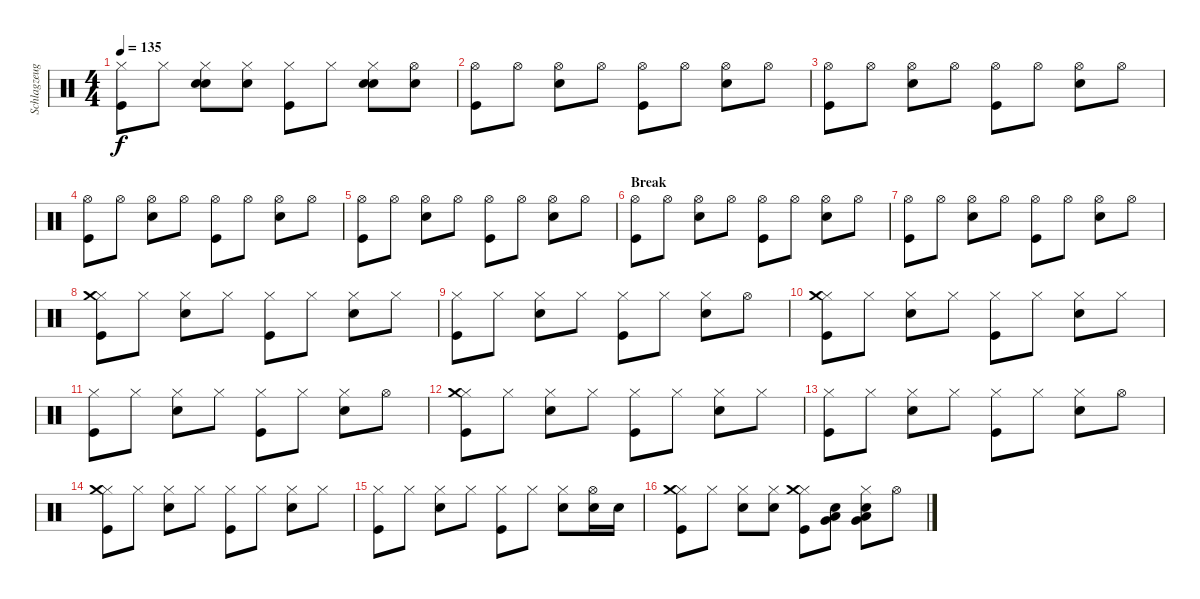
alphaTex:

\track ("Schlagzeug - Bela B." "Schlagzeug") {instrument percussion}
\staff {score}
\articulation defaults
\ts (4 4)
\tempo 135
\clef neutral
\ks c
("Kick (hit)" "Hi-Hat (closed)").8{dy f} "Hi-Hat (closed)".8 ("Electric Snare (hit)" "Hi-Hat (closed)" "Hand Clap (hit)").8 ("Hi-Hat (closed)" "Hand Clap (hit)").8 ("Kick (hit)" "Hi-Hat (closed)").8 "Hi-Hat (closed)".8 ("Electric Snare (hit)" "Hi-Hat (closed)" "Hand Clap (hit)").8 ("Hi-Hat (open)" "Hand Clap (hit)").8 |
("Kick (hit)" "Hi-Hat (open)").8 "Hi-Hat (open)".8 ("Electric Snare (hit)" "Hi-Hat (open)").8 "Hi-Hat (open)".8 ("Kick (hit)" "Hi-Hat (open)").8 "Hi-Hat (open)".8 ("Electric Snare (hit)" "Hi-Hat (open)").8 "Hi-Hat (open)".8 |
("Kick (hit)" "Hi-Hat (open)").8 "Hi-Hat (open)".8 ("Electric Snare (hit)" "Hi-Hat (open)").8 "Hi-Hat (open)".8 ("Kick (hit)" "Hi-Hat (open)").8 "Hi-Hat (open)".8 ("Electric Snare (hit)" "Hi-Hat (open)").8 "Hi-Hat (open)".8 |
("Kick (hit)" "Hi-Hat (open)").8 "Hi-Hat (open)".8 ("Electric Snare (hit)" "Hi-Hat (open)").8 "Hi-Hat (open)".8 ("Kick (hit)" "Hi-Hat (open)").8 "Hi-Hat (open)".8 ("Electric Snare (hit)" "Hi-Hat (open)").8 "Hi-Hat (open)".8 |
("Kick (hit)" "Hi-Hat (open)").8 "Hi-Hat (open)".8 ("Electric Snare (hit)" "Hi-Hat (open)").8 "Hi-Hat (open)".8 ("Kick (hit)" "Hi-Hat (open)").8 "Hi-Hat (open)".8 ("Electric Snare (hit)" "Hi-Hat (open)").8 "Hi-Hat (open)".8 |
\section ("" "Break")
("Kick (hit)" "Hi-Hat (open)").8 "Hi-Hat (open)".8 ("Electric Snare (hit)" "Hi-Hat (open)").8 "Hi-Hat (open)".8 ("Kick (hit)" "Hi-Hat (open)").8 "Hi-Hat (open)".8 ("Electric Snare (hit)" "Hi-Hat (open)").8 "Hi-Hat (open)".8 |
("Kick (hit)" "Hi-Hat (open)").8 "Hi-Hat (open)".8 ("Electric Snare (hit)" "Hi-Hat (open)").8 "Hi-Hat (open)".8 ("Kick (hit)" "Hi-Hat (open)").8 "Hi-Hat (open)".8 ("Electric Snare (hit)" "Hi-Hat (open)").8 "Hi-Hat (open)".8 |
("Kick (hit)" "Hi-Hat (closed)" "Crash medium (hit)").8 "Hi-Hat (closed)".8 ("Electric Snare (hit)" "Hi-Hat (closed)").8 "Hi-Hat (closed)".8 ("Kick (hit)" "Hi-Hat (closed)").8 "Hi-Hat (closed)".8 ("Electric Snare (hit)" "Hi-Hat (closed)").8 "Hi-Hat (closed)".8 |
("Kick (hit)" "Hi-Hat (closed)").8 "Hi-Hat (closed)".8 ("Electric Snare (hit)" "Hi-Hat (closed)").8 "Hi-Hat (closed)".8 ("Kick (hit)" "Hi-Hat (closed)").8 "Hi-Hat (closed)".8 ("Electric Snare (hit)" "Hi-Hat (closed)").8 "Hi-Hat (open)".8 |
("Kick (hit)" "Hi-Hat (closed)" "Crash medium (hit)").8 "Hi-Hat (closed)".8 ("Electric Snare (hit)" "Hi-Hat (closed)").8 "Hi-Hat (closed)".8 ("Kick (hit)" "Hi-Hat (closed)").8 "Hi-Hat (closed)".8 ("Electric Snare (hit)" "Hi-Hat (closed)").8 "Hi-Hat (closed)".8 |
("Kick (hit)" "Hi-Hat (closed)").8 "Hi-Hat (closed)".8 ("Electric Snare (hit)" "Hi-Hat (closed)").8 "Hi-Hat (closed)".8 ("Kick (hit)" "Hi-Hat (closed)").8 "Hi-Hat (closed)".8 ("Electric Snare (hit)" "Hi-Hat (closed)").8 "Hi-Hat (open)".8 |
("Kick (hit)" "Hi-Hat (closed)" "Crash medium (hit)").8 "Hi-Hat (closed)".8 ("Electric Snare (hit)" "Hi-Hat (closed)").8 "Hi-Hat (closed)".8 ("Kick (hit)" "Hi-Hat (closed)").8 "Hi-Hat (closed)".8 ("Electric Snare (hit)" "Hi-Hat (closed)").8 "Hi-Hat (closed)".8 |
("Kick (hit)" "Hi-Hat (closed)").8 "Hi-Hat (closed)".8 ("Electric Snare (hit)" "Hi-Hat (closed)").8 "Hi-Hat (closed)".8 ("Kick (hit)" "Hi-Hat (closed)").8 "Hi-Hat (closed)".8 ("Electric Snare (hit)" "Hi-Hat (closed)").8 "Hi-Hat (open)".8 |
("Kick (hit)" "Hi-Hat (closed)" "Crash medium (hit)").8 "Hi-Hat (closed)".8 ("Electric Snare (hit)" "Hi-Hat (closed)").8 "Hi-Hat (closed)".8 ("Kick (hit)" "Hi-Hat (closed)").8 "Hi-Hat (closed)".8 ("Electric Snare (hit)" "Hi-Hat (closed)").8 "Hi-Hat (closed)".8 |
("Kick (hit)" "Hi-Hat (closed)").8 "Hi-Hat (closed)".8 ("Electric Snare (hit)" "Hi-Hat (closed)").8 "Hi-Hat (closed)".8 ("Kick (hit)" "Hi-Hat (closed)").8 "Hi-Hat (closed)".8 ("Electric Snare (hit)" "Hi-Hat (closed)").8 ("Hi-Hat (open)" "Electric Snare (hit)").16 "Electric Snare (hit)".16 |
("Kick (hit)" "Hi-Hat (closed)" "Crash medium (hit)").8 "Hi-Hat (closed)".8 ("Electric Snare (hit)" "Hi-Hat (closed)").8 ("Hi-Hat (closed)" "Electric Snare (hit)").8 ("Kick (hit)" "Hi-Hat (closed)" "Crash medium (hit)").8 ("Electric Snare (hit)" "Low Floor Tom (hit)" "Very Low Tom (hit)").8 ("Electric Snare (hit)" "Hi-Hat (closed)" "Low Floor Tom (hit)" "Very Low Tom (hit)").8 "Hi-Hat (open)".8
